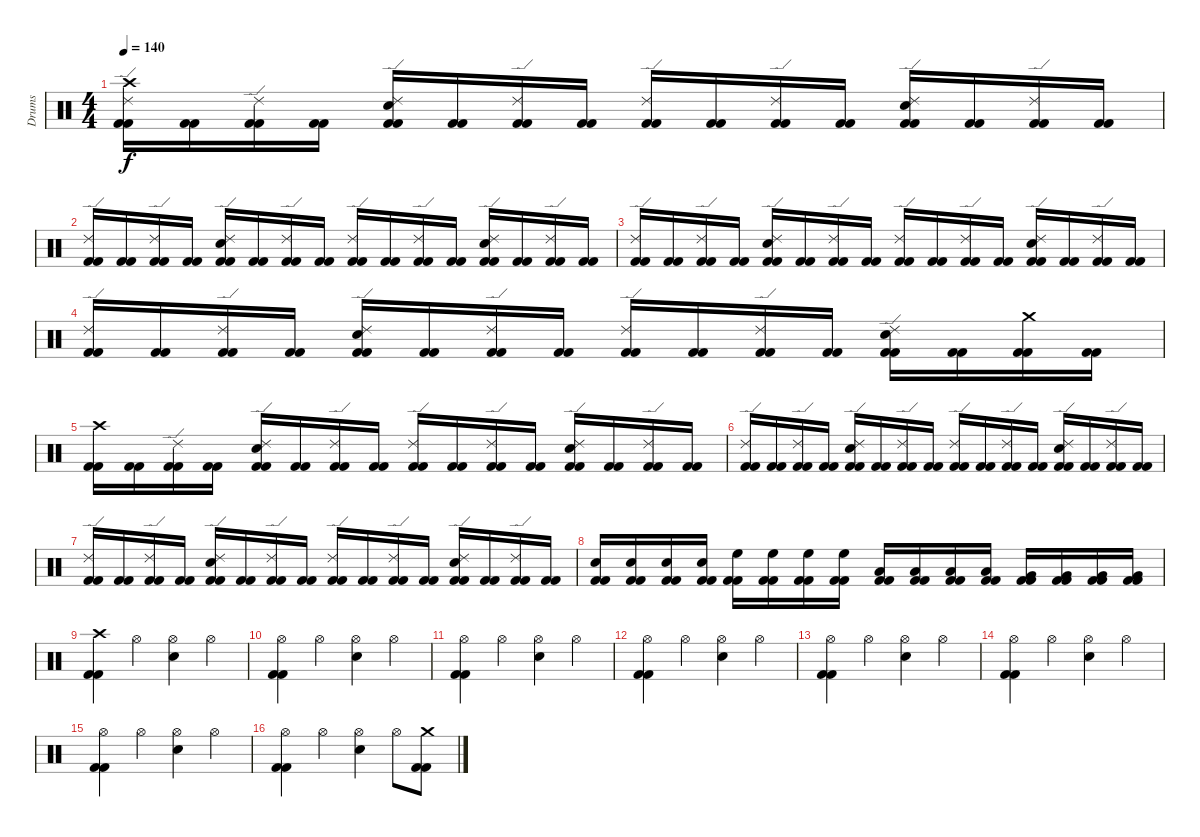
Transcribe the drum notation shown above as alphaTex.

\track ("Drums" "Drums") {instrument percussion}
\staff {score}
\articulation defaults
\ts (4 4)
\tempo 140
\clef neutral
\ks c
("Crash high (hit)" "Ride (edge) 2" "Kick (hit) 2" "Kick (hit) 2").16{dy f} ("Kick (hit) 2" "Kick (hit) 2").16 ("Ride (edge) 2" "Kick (hit) 2" "Kick (hit) 2").16 ("Kick (hit) 2" "Kick (hit) 2").16 ("Ride (edge) 2" "Electric Snare (hit)" "Kick (hit) 2" "Kick (hit) 2").16 ("Kick (hit) 2" "Kick (hit) 2").16 ("Ride (edge) 2" "Kick (hit) 2" "Kick (hit) 2").16 ("Kick (hit) 2" "Kick (hit) 2").16 ("Ride (edge) 2" "Kick (hit) 2" "Kick (hit) 2").16 ("Kick (hit) 2" "Kick (hit) 2").16 ("Ride (edge) 2" "Kick (hit) 2" "Kick (hit) 2").16 ("Kick (hit) 2" "Kick (hit) 2").16 ("Ride (edge) 2" "Electric Snare (hit)" "Kick (hit) 2" "Kick (hit) 2").16 ("Kick (hit) 2" "Kick (hit) 2").16 ("Ride (edge) 2" "Kick (hit) 2" "Kick (hit) 2").16 ("Kick (hit) 2" "Kick (hit) 2").16 |
("Ride (edge) 2" "Kick (hit) 2" "Kick (hit) 2").16 ("Kick (hit) 2" "Kick (hit) 2").16 ("Ride (edge) 2" "Kick (hit) 2" "Kick (hit) 2").16 ("Kick (hit) 2" "Kick (hit) 2").16 ("Ride (edge) 2" "Electric Snare (hit)" "Kick (hit) 2" "Kick (hit) 2").16 ("Kick (hit) 2" "Kick (hit) 2").16 ("Ride (edge) 2" "Kick (hit) 2" "Kick (hit) 2").16 ("Kick (hit) 2" "Kick (hit) 2").16 ("Ride (edge) 2" "Kick (hit) 2" "Kick (hit) 2").16 ("Kick (hit) 2" "Kick (hit) 2").16 ("Ride (edge) 2" "Kick (hit) 2" "Kick (hit) 2").16 ("Kick (hit) 2" "Kick (hit) 2").16 ("Ride (edge) 2" "Electric Snare (hit)" "Kick (hit) 2" "Kick (hit) 2").16 ("Kick (hit) 2" "Kick (hit) 2").16 ("Ride (edge) 2" "Kick (hit) 2" "Kick (hit) 2").16 ("Kick (hit) 2" "Kick (hit) 2").16 |
("Ride (edge) 2" "Kick (hit) 2" "Kick (hit) 2").16 ("Kick (hit) 2" "Kick (hit) 2").16 ("Ride (edge) 2" "Kick (hit) 2" "Kick (hit) 2").16 ("Kick (hit) 2" "Kick (hit) 2").16 ("Ride (edge) 2" "Electric Snare (hit)" "Kick (hit) 2" "Kick (hit) 2").16 ("Kick (hit) 2" "Kick (hit) 2").16 ("Ride (edge) 2" "Kick (hit) 2" "Kick (hit) 2").16 ("Kick (hit) 2" "Kick (hit) 2").16 ("Ride (edge) 2" "Kick (hit) 2" "Kick (hit) 2").16 ("Kick (hit) 2" "Kick (hit) 2").16 ("Ride (edge) 2" "Kick (hit) 2" "Kick (hit) 2").16 ("Kick (hit) 2" "Kick (hit) 2").16 ("Ride (edge) 2" "Electric Snare (hit)" "Kick (hit) 2" "Kick (hit) 2").16 ("Kick (hit) 2" "Kick (hit) 2").16 ("Ride (edge) 2" "Kick (hit) 2" "Kick (hit) 2").16 ("Kick (hit) 2" "Kick (hit) 2").16 |
("Ride (edge) 2" "Kick (hit) 2" "Kick (hit) 2").16 ("Kick (hit) 2" "Kick (hit) 2").16 ("Ride (edge) 2" "Kick (hit) 2" "Kick (hit) 2").16 ("Kick (hit) 2" "Kick (hit) 2").16 ("Ride (edge) 2" "Electric Snare (hit)" "Kick (hit) 2" "Kick (hit) 2").16 ("Kick (hit) 2" "Kick (hit) 2").16 ("Ride (edge) 2" "Kick (hit) 2" "Kick (hit) 2").16 ("Kick (hit) 2" "Kick (hit) 2").16 ("Ride (edge) 2" "Kick (hit) 2" "Kick (hit) 2").16 ("Kick (hit) 2" "Kick (hit) 2").16 ("Ride (edge) 2" "Kick (hit) 2" "Kick (hit) 2").16 ("Kick (hit) 2" "Kick (hit) 2").16 ("Ride (edge) 2" "Electric Snare (hit)" "Kick (hit) 2" "Kick (hit) 2").16 ("Kick (hit) 2" "Kick (hit) 2").16 ("Crash medium (hit)" "Kick (hit) 2" "Kick (hit) 2").16 ("Kick (hit) 2" "Kick (hit) 2").16 |
("Crash high (hit)" "Kick (hit) 2" "Kick (hit) 2").16 ("Kick (hit) 2" "Kick (hit) 2").16 ("Ride (edge) 2" "Kick (hit) 2" "Kick (hit) 2").16 ("Kick (hit) 2" "Kick (hit) 2").16 ("Ride (edge) 2" "Electric Snare (hit)" "Kick (hit) 2" "Kick (hit) 2").16 ("Kick (hit) 2" "Kick (hit) 2").16 ("Ride (edge) 2" "Kick (hit) 2" "Kick (hit) 2").16 ("Kick (hit) 2" "Kick (hit) 2").16 ("Ride (edge) 2" "Kick (hit) 2" "Kick (hit) 2").16 ("Kick (hit) 2" "Kick (hit) 2").16 ("Ride (edge) 2" "Kick (hit) 2" "Kick (hit) 2").16 ("Kick (hit) 2" "Kick (hit) 2").16 ("Ride (edge) 2" "Electric Snare (hit)" "Kick (hit) 2" "Kick (hit) 2").16 ("Kick (hit) 2" "Kick (hit) 2").16 ("Ride (edge) 2" "Kick (hit) 2" "Kick (hit) 2").16 ("Kick (hit) 2" "Kick (hit) 2").16 |
("Ride (edge) 2" "Kick (hit) 2" "Kick (hit) 2").16 ("Kick (hit) 2" "Kick (hit) 2").16 ("Ride (edge) 2" "Kick (hit) 2" "Kick (hit) 2").16 ("Kick (hit) 2" "Kick (hit) 2").16 ("Ride (edge) 2" "Electric Snare (hit)" "Kick (hit) 2" "Kick (hit) 2").16 ("Kick (hit) 2" "Kick (hit) 2").16 ("Ride (edge) 2" "Kick (hit) 2" "Kick (hit) 2").16 ("Kick (hit) 2" "Kick (hit) 2").16 ("Ride (edge) 2" "Kick (hit) 2" "Kick (hit) 2").16 ("Kick (hit) 2" "Kick (hit) 2").16 ("Ride (edge) 2" "Kick (hit) 2" "Kick (hit) 2").16 ("Kick (hit) 2" "Kick (hit) 2").16 ("Ride (edge) 2" "Electric Snare (hit)" "Kick (hit) 2" "Kick (hit) 2").16 ("Kick (hit) 2" "Kick (hit) 2").16 ("Ride (edge) 2" "Kick (hit) 2" "Kick (hit) 2").16 ("Kick (hit) 2" "Kick (hit) 2").16 |
("Ride (edge) 2" "Kick (hit) 2" "Kick (hit) 2").16 ("Kick (hit) 2" "Kick (hit) 2").16 ("Ride (edge) 2" "Kick (hit) 2" "Kick (hit) 2").16 ("Kick (hit) 2" "Kick (hit) 2").16 ("Ride (edge) 2" "Electric Snare (hit)" "Kick (hit) 2" "Kick (hit) 2").16 ("Kick (hit) 2" "Kick (hit) 2").16 ("Ride (edge) 2" "Kick (hit) 2" "Kick (hit) 2").16 ("Kick (hit) 2" "Kick (hit) 2").16 ("Ride (edge) 2" "Kick (hit) 2" "Kick (hit) 2").16 ("Kick (hit) 2" "Kick (hit) 2").16 ("Ride (edge) 2" "Kick (hit) 2" "Kick (hit) 2").16 ("Kick (hit) 2" "Kick (hit) 2").16 ("Ride (edge) 2" "Electric Snare (hit)" "Kick (hit) 2" "Kick (hit) 2").16 ("Kick (hit) 2" "Kick (hit) 2").16 ("Ride (edge) 2" "Kick (hit) 2" "Kick (hit) 2").16 ("Kick (hit) 2" "Kick (hit) 2").16 |
("Electric Snare (hit)" "Kick (hit) 2" "Kick (hit) 2").16 ("Electric Snare (hit)" "Kick (hit) 2" "Kick (hit) 2").16 ("Electric Snare (hit)" "Kick (hit) 2" "Kick (hit) 2").16 ("Electric Snare (hit)" "Kick (hit) 2" "Kick (hit) 2").16 ("High Floor Tom (hit)" "Kick (hit) 2" "Kick (hit) 2").16 ("High Floor Tom (hit)" "Kick (hit) 2" "Kick (hit) 2").16 ("High Floor Tom (hit)" "Kick (hit) 2" "Kick (hit) 2").16 ("High Floor Tom (hit)" "Kick (hit) 2" "Kick (hit) 2").16 ("Low Tom (hit)" "Kick (hit) 2" "Kick (hit) 2").16 ("Low Tom (hit)" "Kick (hit) 2" "Kick (hit) 2").16 ("Low Tom (hit)" "Kick (hit) 2" "Kick (hit) 2").16 ("Low Tom (hit)" "Kick (hit) 2" "Kick (hit) 2").16 ("Very Low Tom (hit)" "Kick (hit) 2" "Kick (hit) 2").16 ("Very Low Tom (hit)" "Kick (hit) 2" "Kick (hit) 2").16 ("Very Low Tom (hit)" "Kick (hit) 2" "Kick (hit) 2").16 ("Very Low Tom (hit)" "Kick (hit) 2" "Kick (hit) 2").16 |
("Crash high (hit)" "Kick (hit) 2" "Kick (hit) 2").4 "Hi-Hat (open)".4 ("Hi-Hat (open)" "Electric Snare (hit)").4 "Hi-Hat (open)".4 |
("Hi-Hat (open)" "Kick (hit) 2" "Kick (hit) 2").4 "Hi-Hat (open)".4 ("Hi-Hat (open)" "Electric Snare (hit)").4 "Hi-Hat (open)".4 |
("Hi-Hat (open)" "Kick (hit) 2" "Kick (hit) 2").4 "Hi-Hat (open)".4 ("Hi-Hat (open)" "Electric Snare (hit)").4 "Hi-Hat (open)".4 |
("Hi-Hat (open)" "Kick (hit) 2" "Kick (hit) 2").4 "Hi-Hat (open)".4 ("Hi-Hat (open)" "Electric Snare (hit)").4 "Hi-Hat (open)".4 |
("Hi-Hat (open)" "Kick (hit) 2" "Kick (hit) 2").4 "Hi-Hat (open)".4 ("Hi-Hat (open)" "Electric Snare (hit)").4 "Hi-Hat (open)".4 |
("Hi-Hat (open)" "Kick (hit) 2" "Kick (hit) 2").4 "Hi-Hat (open)".4 ("Hi-Hat (open)" "Electric Snare (hit)").4 "Hi-Hat (open)".4 |
("Hi-Hat (open)" "Kick (hit) 2" "Kick (hit) 2").4 "Hi-Hat (open)".4 ("Hi-Hat (open)" "Electric Snare (hit)").4 "Hi-Hat (open)".4 |
("Hi-Hat (open)" "Kick (hit) 2" "Kick (hit) 2").4 "Hi-Hat (open)".4 ("Hi-Hat (open)" "Electric Snare (hit)").4 "Hi-Hat (open)".8 ("Crash medium (hit)" "Kick (hit) 2" "Kick (hit) 2").8
